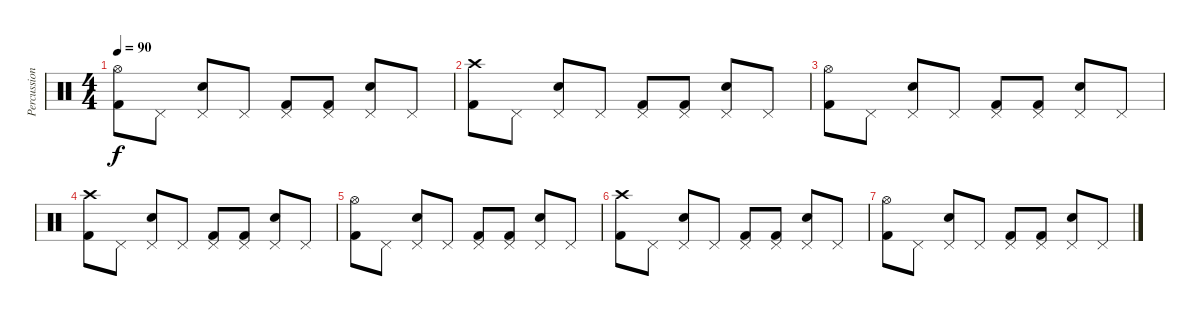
\track ("Percussion" "Percussion") {instrument percussion}
\staff {score}
\articulation defaults
\ts (4 4)
\tempo 90
\clef neutral
\ks c
("Hi-Hat (open)" "Kick (hit) 2").8{dy f} "Pedal Hi-Hat (hit)".8 ("Pedal Hi-Hat (hit)" "Electric Snare (hit)").8 "Pedal Hi-Hat (hit)".8 ("Pedal Hi-Hat (hit)" "Kick (hit) 2").8 ("Pedal Hi-Hat (hit)" "Kick (hit) 2").8 ("Pedal Hi-Hat (hit)" "Electric Snare (hit)").8 "Pedal Hi-Hat (hit)".8 |
("Crash high (hit)" "Kick (hit) 2").8 "Pedal Hi-Hat (hit)".8 ("Pedal Hi-Hat (hit)" "Electric Snare (hit)").8 "Pedal Hi-Hat (hit)".8 ("Pedal Hi-Hat (hit)" "Kick (hit) 2").8 ("Pedal Hi-Hat (hit)" "Kick (hit) 2").8 ("Pedal Hi-Hat (hit)" "Electric Snare (hit)").8 "Pedal Hi-Hat (hit)".8 |
("Hi-Hat (open)" "Kick (hit) 2").8 "Pedal Hi-Hat (hit)".8 ("Pedal Hi-Hat (hit)" "Electric Snare (hit)").8 "Pedal Hi-Hat (hit)".8 ("Pedal Hi-Hat (hit)" "Kick (hit) 2").8 ("Pedal Hi-Hat (hit)" "Kick (hit) 2").8 ("Pedal Hi-Hat (hit)" "Electric Snare (hit)").8 "Pedal Hi-Hat (hit)".8 |
("Crash high (hit)" "Kick (hit) 2").8 "Pedal Hi-Hat (hit)".8 ("Pedal Hi-Hat (hit)" "Electric Snare (hit)").8 "Pedal Hi-Hat (hit)".8 ("Pedal Hi-Hat (hit)" "Kick (hit) 2").8 ("Pedal Hi-Hat (hit)" "Kick (hit) 2").8 ("Pedal Hi-Hat (hit)" "Electric Snare (hit)").8 "Pedal Hi-Hat (hit)".8 |
("Hi-Hat (open)" "Kick (hit) 2").8 "Pedal Hi-Hat (hit)".8 ("Pedal Hi-Hat (hit)" "Electric Snare (hit)").8 "Pedal Hi-Hat (hit)".8 ("Pedal Hi-Hat (hit)" "Kick (hit) 2").8 ("Pedal Hi-Hat (hit)" "Kick (hit) 2").8 ("Pedal Hi-Hat (hit)" "Electric Snare (hit)").8 "Pedal Hi-Hat (hit)".8 |
("Crash high (hit)" "Kick (hit) 2").8 "Pedal Hi-Hat (hit)".8 ("Pedal Hi-Hat (hit)" "Electric Snare (hit)").8 "Pedal Hi-Hat (hit)".8 ("Pedal Hi-Hat (hit)" "Kick (hit) 2").8 ("Pedal Hi-Hat (hit)" "Kick (hit) 2").8 ("Pedal Hi-Hat (hit)" "Electric Snare (hit)").8 "Pedal Hi-Hat (hit)".8 |
("Hi-Hat (open)" "Kick (hit) 2").8 "Pedal Hi-Hat (hit)".8 ("Pedal Hi-Hat (hit)" "Electric Snare (hit)").8 "Pedal Hi-Hat (hit)".8 ("Pedal Hi-Hat (hit)" "Kick (hit) 2").8 ("Pedal Hi-Hat (hit)" "Kick (hit) 2").8 ("Pedal Hi-Hat (hit)" "Electric Snare (hit)").8 "Pedal Hi-Hat (hit)".8
